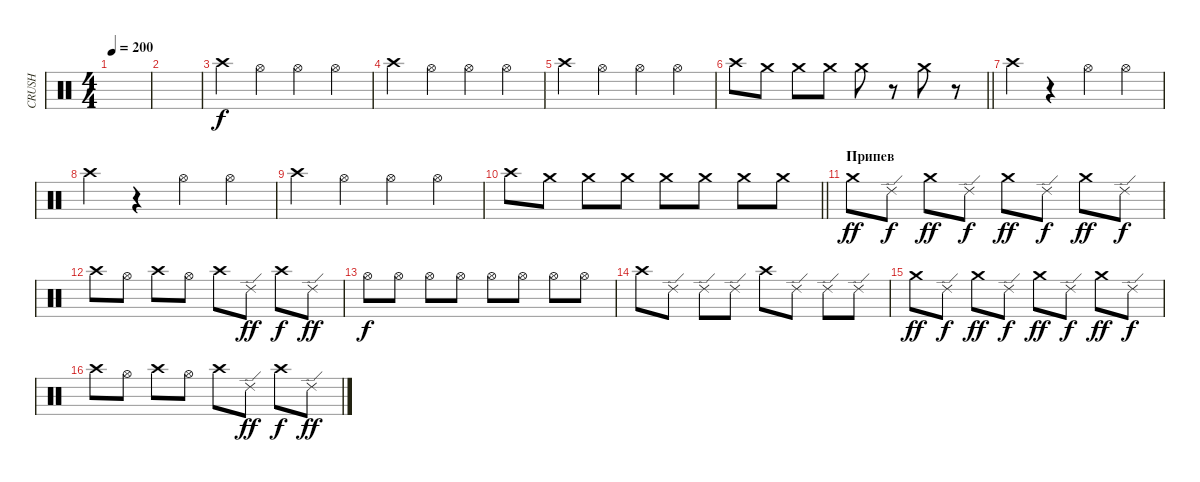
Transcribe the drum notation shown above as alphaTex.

\track ("CRUSH" "CRUSH") {instrument percussion}
\staff {score}
\articulation defaults
\ts (4 4)
\tempo 200
\clef neutral
\ks c
|
|
"Crash high (hit)".4 "Hi-Hat (open)".4 "Hi-Hat (open)".4 "Hi-Hat (open)".4 |
"Crash high (hit)".4 "Hi-Hat (open)".4 "Hi-Hat (open)".4 "Hi-Hat (open)".4 |
"Crash high (hit)".4 "Hi-Hat (open)".4 "Hi-Hat (open)".4 "Hi-Hat (open)".4 |
\barLineRight lightlight "Crash high (hit)".8 "Crash medium (hit)".8 "Crash medium (hit)".8 "Crash medium (hit)".8 "Crash medium (hit)".8
r.8 "Crash medium (hit)".8 r.8 |
"Crash high (hit)".4 r.4 "Hi-Hat (open)".4 "Hi-Hat (open)".4 |
"Crash high (hit)".4 r.4 "Hi-Hat (open)".4 "Hi-Hat (open)".4 |
"Crash high (hit)".4 "Hi-Hat (open)".4 "Hi-Hat (open)".4 "Hi-Hat (open)".4 |
\barLineRight lightlight "Crash high (hit)".8 "Crash medium (hit)".8 "Crash medium (hit)".8 "Crash medium (hit)".8 "Crash medium (hit)".8 "Crash medium (hit)".8 "Crash medium (hit)".8 "Crash medium (hit)".8
|
\section ("" "Припев")
"Crash medium (hit)".8{dy ff} "Ride (edge) 2".8{dy f} "Crash medium (hit)".8{dy ff} "Ride (edge) 2".8{dy f} "Crash medium (hit)".8{dy ff} "Ride (edge) 2".8{dy f} "Crash medium (hit)".8{dy ff} "Ride (edge) 2".8{dy f} |
"Crash high (hit)".8 "Hi-Hat (open)".8 "Crash high (hit)".8 "Hi-Hat (open)".8 "Crash high (hit)".8 "Ride (edge) 2".8{dy ff} "Crash high (hit)".8{dy f} "Ride (edge) 2".8{dy ff} |
"Hi-Hat (open)".8{dy f} "Hi-Hat (open)".8 "Hi-Hat (open)".8 "Hi-Hat (open)".8 "Hi-Hat (open)".8 "Hi-Hat (open)".8 "Hi-Hat (open)".8 "Hi-Hat (open)".8 |
"Crash high (hit)".8 "Ride (edge) 2".8 "Ride (edge) 2".8 "Ride (edge) 2".8 "Crash high (hit)".8 "Ride (edge) 2".8 "Ride (edge) 2".8 "Ride (edge) 2".8 |
"Crash medium (hit)".8{dy ff} "Ride (edge) 2".8{dy f} "Crash medium (hit)".8{dy ff} "Ride (edge) 2".8{dy f} "Crash medium (hit)".8{dy ff} "Ride (edge) 2".8{dy f} "Crash medium (hit)".8{dy ff} "Ride (edge) 2".8{dy f} |
"Crash high (hit)".8 "Hi-Hat (open)".8 "Crash high (hit)".8 "Hi-Hat (open)".8 "Crash high (hit)".8 "Ride (edge) 2".8{dy ff} "Crash high (hit)".8{dy f} "Ride (edge) 2".8{dy ff}
